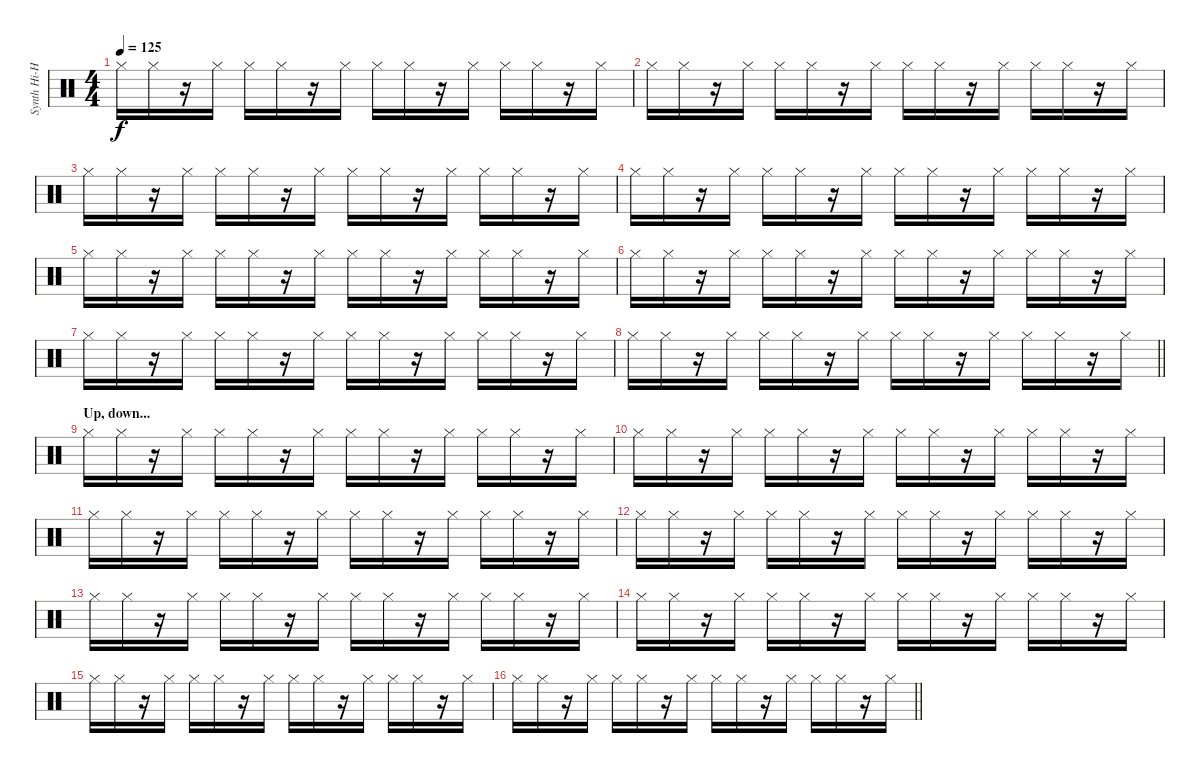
\track ("Synth Hi-Hat (Gillian Gilbert)" "Synth Hi-H") {instrument percussion}
\staff {score}
\articulation defaults
\ts (4 4)
\tempo 125
\clef neutral
\ks c "Hi-Hat (closed)".16{dy f} "Hi-Hat (closed)".16
r.16 "Hi-Hat (closed)".16 "Hi-Hat (closed)".16 "Hi-Hat (closed)".16 r.16 "Hi-Hat (closed)".16 "Hi-Hat (closed)".16 "Hi-Hat (closed)".16 r.16 "Hi-Hat (closed)".16 "Hi-Hat (closed)".16 "Hi-Hat (closed)".16 r.16 "Hi-Hat (closed)".16 |
"Hi-Hat (closed)".16 "Hi-Hat (closed)".16 r.16 "Hi-Hat (closed)".16 "Hi-Hat (closed)".16 "Hi-Hat (closed)".16 r.16 "Hi-Hat (closed)".16 "Hi-Hat (closed)".16 "Hi-Hat (closed)".16 r.16 "Hi-Hat (closed)".16 "Hi-Hat (closed)".16 "Hi-Hat (closed)".16 r.16 "Hi-Hat (closed)".16 |
"Hi-Hat (closed)".16 "Hi-Hat (closed)".16 r.16 "Hi-Hat (closed)".16 "Hi-Hat (closed)".16 "Hi-Hat (closed)".16 r.16 "Hi-Hat (closed)".16 "Hi-Hat (closed)".16 "Hi-Hat (closed)".16 r.16 "Hi-Hat (closed)".16 "Hi-Hat (closed)".16 "Hi-Hat (closed)".16 r.16 "Hi-Hat (closed)".16 |
"Hi-Hat (closed)".16 "Hi-Hat (closed)".16 r.16 "Hi-Hat (closed)".16 "Hi-Hat (closed)".16 "Hi-Hat (closed)".16 r.16 "Hi-Hat (closed)".16 "Hi-Hat (closed)".16 "Hi-Hat (closed)".16 r.16 "Hi-Hat (closed)".16 "Hi-Hat (closed)".16 "Hi-Hat (closed)".16 r.16 "Hi-Hat (closed)".16 |
"Hi-Hat (closed)".16 "Hi-Hat (closed)".16 r.16 "Hi-Hat (closed)".16 "Hi-Hat (closed)".16 "Hi-Hat (closed)".16 r.16 "Hi-Hat (closed)".16 "Hi-Hat (closed)".16 "Hi-Hat (closed)".16 r.16 "Hi-Hat (closed)".16 "Hi-Hat (closed)".16 "Hi-Hat (closed)".16 r.16 "Hi-Hat (closed)".16 |
"Hi-Hat (closed)".16 "Hi-Hat (closed)".16 r.16 "Hi-Hat (closed)".16 "Hi-Hat (closed)".16 "Hi-Hat (closed)".16 r.16 "Hi-Hat (closed)".16 "Hi-Hat (closed)".16 "Hi-Hat (closed)".16 r.16 "Hi-Hat (closed)".16 "Hi-Hat (closed)".16 "Hi-Hat (closed)".16 r.16 "Hi-Hat (closed)".16 |
"Hi-Hat (closed)".16 "Hi-Hat (closed)".16 r.16 "Hi-Hat (closed)".16 "Hi-Hat (closed)".16 "Hi-Hat (closed)".16 r.16 "Hi-Hat (closed)".16 "Hi-Hat (closed)".16 "Hi-Hat (closed)".16 r.16 "Hi-Hat (closed)".16 "Hi-Hat (closed)".16 "Hi-Hat (closed)".16 r.16 "Hi-Hat (closed)".16 |
\barLineRight lightlight "Hi-Hat (closed)".16 "Hi-Hat (closed)".16
r.16 "Hi-Hat (closed)".16 "Hi-Hat (closed)".16 "Hi-Hat (closed)".16 r.16 "Hi-Hat (closed)".16 "Hi-Hat (closed)".16 "Hi-Hat (closed)".16 r.16 "Hi-Hat (closed)".16 "Hi-Hat (closed)".16 "Hi-Hat (closed)".16 r.16 "Hi-Hat (closed)".16 |
\section ("" "Up, down...")
"Hi-Hat (closed)".16 "Hi-Hat (closed)".16 r.16 "Hi-Hat (closed)".16 "Hi-Hat (closed)".16 "Hi-Hat (closed)".16 r.16 "Hi-Hat (closed)".16 "Hi-Hat (closed)".16 "Hi-Hat (closed)".16 r.16 "Hi-Hat (closed)".16 "Hi-Hat (closed)".16 "Hi-Hat (closed)".16 r.16 "Hi-Hat (closed)".16 |
"Hi-Hat (closed)".16 "Hi-Hat (closed)".16 r.16 "Hi-Hat (closed)".16 "Hi-Hat (closed)".16 "Hi-Hat (closed)".16 r.16 "Hi-Hat (closed)".16 "Hi-Hat (closed)".16 "Hi-Hat (closed)".16 r.16 "Hi-Hat (closed)".16 "Hi-Hat (closed)".16 "Hi-Hat (closed)".16 r.16 "Hi-Hat (closed)".16 |
"Hi-Hat (closed)".16 "Hi-Hat (closed)".16 r.16 "Hi-Hat (closed)".16 "Hi-Hat (closed)".16 "Hi-Hat (closed)".16 r.16 "Hi-Hat (closed)".16 "Hi-Hat (closed)".16 "Hi-Hat (closed)".16 r.16 "Hi-Hat (closed)".16 "Hi-Hat (closed)".16 "Hi-Hat (closed)".16 r.16 "Hi-Hat (closed)".16 |
"Hi-Hat (closed)".16 "Hi-Hat (closed)".16 r.16 "Hi-Hat (closed)".16 "Hi-Hat (closed)".16 "Hi-Hat (closed)".16 r.16 "Hi-Hat (closed)".16 "Hi-Hat (closed)".16 "Hi-Hat (closed)".16 r.16 "Hi-Hat (closed)".16 "Hi-Hat (closed)".16 "Hi-Hat (closed)".16 r.16 "Hi-Hat (closed)".16 |
"Hi-Hat (closed)".16 "Hi-Hat (closed)".16 r.16 "Hi-Hat (closed)".16 "Hi-Hat (closed)".16 "Hi-Hat (closed)".16 r.16 "Hi-Hat (closed)".16 "Hi-Hat (closed)".16 "Hi-Hat (closed)".16 r.16 "Hi-Hat (closed)".16 "Hi-Hat (closed)".16 "Hi-Hat (closed)".16 r.16 "Hi-Hat (closed)".16 |
"Hi-Hat (closed)".16 "Hi-Hat (closed)".16 r.16 "Hi-Hat (closed)".16 "Hi-Hat (closed)".16 "Hi-Hat (closed)".16 r.16 "Hi-Hat (closed)".16 "Hi-Hat (closed)".16 "Hi-Hat (closed)".16 r.16 "Hi-Hat (closed)".16 "Hi-Hat (closed)".16 "Hi-Hat (closed)".16 r.16 "Hi-Hat (closed)".16 |
"Hi-Hat (closed)".16 "Hi-Hat (closed)".16 r.16 "Hi-Hat (closed)".16 "Hi-Hat (closed)".16 "Hi-Hat (closed)".16 r.16 "Hi-Hat (closed)".16 "Hi-Hat (closed)".16 "Hi-Hat (closed)".16 r.16 "Hi-Hat (closed)".16 "Hi-Hat (closed)".16 "Hi-Hat (closed)".16 r.16 "Hi-Hat (closed)".16 |
\barLineRight lightlight "Hi-Hat (closed)".16 "Hi-Hat (closed)".16
r.16 "Hi-Hat (closed)".16 "Hi-Hat (closed)".16 "Hi-Hat (closed)".16 r.16 "Hi-Hat (closed)".16 "Hi-Hat (closed)".16 "Hi-Hat (closed)".16 r.16 "Hi-Hat (closed)".16 "Hi-Hat (closed)".16 "Hi-Hat (closed)".16 r.16 "Hi-Hat (closed)".16
